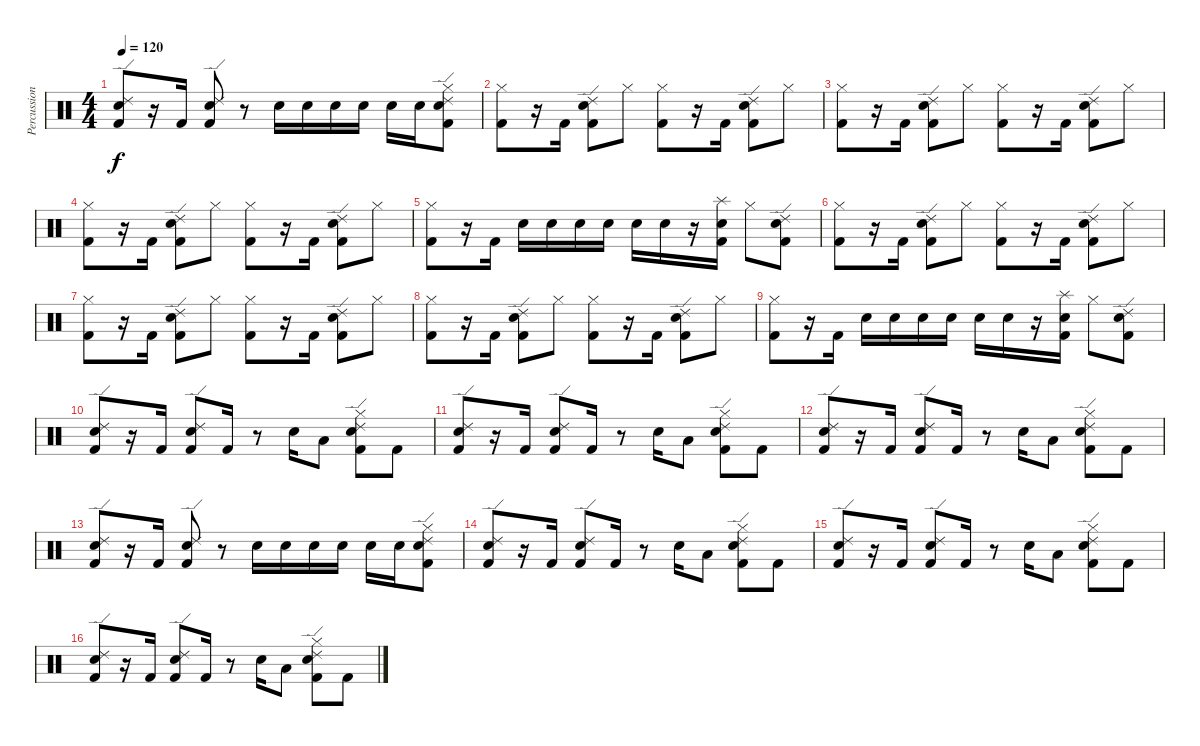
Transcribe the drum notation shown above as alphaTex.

\track ("Percussions" "Percussion") {instrument percussion}
\staff {score}
\articulation defaults
\ts (4 4)
\tempo 120
\clef neutral
\ks c
("Ride (edge) 2" "Electric Snare (hit)" "Kick (hit) 2").8{dy f} r.16 "Kick (hit) 2".16 ("Ride (edge) 2" "Electric Snare (hit)" "Kick (hit) 2").8 r.8 "Electric Snare (hit)".16 "Electric Snare (hit)".16 "Electric Snare (hit)".16 "Electric Snare (hit)".16 "Electric Snare (hit)".16 "Electric Snare (hit)".16 ("Ride (edge) 2" "Hi-Hat (closed)" "Electric Snare (hit)" "Kick (hit) 2").8 |
("Hi-Hat (closed)" "Kick (hit) 2").8 r.16 "Kick (hit) 2".16 ("Ride (edge) 2" "Electric Snare (hit)" "Kick (hit) 2").8 "Hi-Hat (closed)".8 ("Hi-Hat (closed)" "Kick (hit) 2").8 r.16 "Kick (hit) 2".16 ("Ride (edge) 2" "Electric Snare (hit)" "Kick (hit) 2").8 "Hi-Hat (closed)".8 |
("Hi-Hat (closed)" "Kick (hit) 2").8 r.16 "Kick (hit) 2".16 ("Ride (edge) 2" "Electric Snare (hit)" "Kick (hit) 2").8 "Hi-Hat (closed)".8 ("Hi-Hat (closed)" "Kick (hit) 2").8 r.16 "Kick (hit) 2".16 ("Ride (edge) 2" "Electric Snare (hit)" "Kick (hit) 2").8 "Hi-Hat (closed)".8 |
("Hi-Hat (closed)" "Kick (hit) 2").8 r.16 "Kick (hit) 2".16 ("Ride (edge) 2" "Electric Snare (hit)" "Kick (hit) 2").8 "Hi-Hat (closed)".8 ("Hi-Hat (closed)" "Kick (hit) 2").8 r.16 "Kick (hit) 2".16 ("Ride (edge) 2" "Electric Snare (hit)" "Kick (hit) 2").8 "Hi-Hat (closed)".8 |
("Hi-Hat (closed)" "Kick (hit) 2").8 r.16 "Kick (hit) 2".16 "Electric Snare (hit)".16 "Electric Snare (hit)".16 "Electric Snare (hit)".16 "Electric Snare (hit)".16 "Electric Snare (hit)".16 "Electric Snare (hit)".16 r.16 ("Splash (hit)" "Electric Snare (hit)" "Kick (hit) 2").16 "Hi-Hat (closed)".8 ("Ride (edge) 2" "Electric Snare (hit)" "Kick (hit) 2").8 |
("Hi-Hat (closed)" "Kick (hit) 2").8 r.16 "Kick (hit) 2".16 ("Ride (edge) 2" "Electric Snare (hit)" "Kick (hit) 2").8 "Hi-Hat (closed)".8 ("Hi-Hat (closed)" "Kick (hit) 2").8 r.16 "Kick (hit) 2".16 ("Ride (edge) 2" "Electric Snare (hit)" "Kick (hit) 2").8 "Hi-Hat (closed)".8 |
("Hi-Hat (closed)" "Kick (hit) 2").8 r.16 "Kick (hit) 2".16 ("Ride (edge) 2" "Electric Snare (hit)" "Kick (hit) 2").8 "Hi-Hat (closed)".8 ("Hi-Hat (closed)" "Kick (hit) 2").8 r.16 "Kick (hit) 2".16 ("Ride (edge) 2" "Electric Snare (hit)" "Kick (hit) 2").8 "Hi-Hat (closed)".8 |
("Hi-Hat (closed)" "Kick (hit) 2").8 r.16 "Kick (hit) 2".16 ("Ride (edge) 2" "Electric Snare (hit)" "Kick (hit) 2").8 "Hi-Hat (closed)".8 ("Hi-Hat (closed)" "Kick (hit) 2").8 r.16 "Kick (hit) 2".16 ("Ride (edge) 2" "Electric Snare (hit)" "Kick (hit) 2").8 "Hi-Hat (closed)".8 |
("Hi-Hat (closed)" "Kick (hit) 2").8 r.16 "Kick (hit) 2".16 "Electric Snare (hit)".16 "Electric Snare (hit)".16 "Electric Snare (hit)".16 "Electric Snare (hit)".16 "Electric Snare (hit)".16 "Electric Snare (hit)".16 r.16 ("Splash (hit)" "Electric Snare (hit)" "Kick (hit) 2").16 "Hi-Hat (closed)".8 ("Ride (edge) 2" "Electric Snare (hit)" "Kick (hit) 2").8 |
("Ride (edge) 2" "Electric Snare (hit)" "Kick (hit) 2").8 r.16 "Kick (hit) 2".16 ("Ride (edge) 2" "Electric Snare (hit)" "Kick (hit) 2").8 "Kick (hit) 2".16 r.8 "Electric Snare (hit)".16 "Low Floor Tom (hit)".8 ("Ride (edge) 2" "Hi-Hat (closed)" "Electric Snare (hit)" "Kick (hit) 2").8 "Kick (hit) 2".8 |
("Ride (edge) 2" "Electric Snare (hit)" "Kick (hit) 2").8 r.16 "Kick (hit) 2".16 ("Ride (edge) 2" "Electric Snare (hit)" "Kick (hit) 2").8 "Kick (hit) 2".16 r.8 "Electric Snare (hit)".16 "Low Floor Tom (hit)".8 ("Ride (edge) 2" "Hi-Hat (closed)" "Electric Snare (hit)" "Kick (hit) 2").8 "Kick (hit) 2".8 |
("Ride (edge) 2" "Electric Snare (hit)" "Kick (hit) 2").8 r.16 "Kick (hit) 2".16 ("Ride (edge) 2" "Electric Snare (hit)" "Kick (hit) 2").8 "Kick (hit) 2".16 r.8 "Electric Snare (hit)".16 "Low Floor Tom (hit)".8 ("Ride (edge) 2" "Hi-Hat (closed)" "Electric Snare (hit)" "Kick (hit) 2").8 "Kick (hit) 2".8 |
("Ride (edge) 2" "Electric Snare (hit)" "Kick (hit) 2").8 r.16 "Kick (hit) 2".16 ("Ride (edge) 2" "Electric Snare (hit)" "Kick (hit) 2").8 r.8 "Electric Snare (hit)".16 "Electric Snare (hit)".16 "Electric Snare (hit)".16 "Electric Snare (hit)".16 "Electric Snare (hit)".16 "Electric Snare (hit)".16 ("Ride (edge) 2" "Hi-Hat (closed)" "Electric Snare (hit)" "Kick (hit) 2").8 |
("Ride (edge) 2" "Electric Snare (hit)" "Kick (hit) 2").8 r.16 "Kick (hit) 2".16 ("Ride (edge) 2" "Electric Snare (hit)" "Kick (hit) 2").8 "Kick (hit) 2".16 r.8 "Electric Snare (hit)".16 "Low Floor Tom (hit)".8 ("Ride (edge) 2" "Hi-Hat (closed)" "Electric Snare (hit)" "Kick (hit) 2").8 "Kick (hit) 2".8 |
("Ride (edge) 2" "Electric Snare (hit)" "Kick (hit) 2").8 r.16 "Kick (hit) 2".16 ("Ride (edge) 2" "Electric Snare (hit)" "Kick (hit) 2").8 "Kick (hit) 2".16 r.8 "Electric Snare (hit)".16 "Low Floor Tom (hit)".8 ("Ride (edge) 2" "Hi-Hat (closed)" "Electric Snare (hit)" "Kick (hit) 2").8 "Kick (hit) 2".8 |
("Ride (edge) 2" "Electric Snare (hit)" "Kick (hit) 2").8 r.16 "Kick (hit) 2".16 ("Ride (edge) 2" "Electric Snare (hit)" "Kick (hit) 2").8 "Kick (hit) 2".16 r.8 "Electric Snare (hit)".16 "Low Floor Tom (hit)".8 ("Ride (edge) 2" "Hi-Hat (closed)" "Electric Snare (hit)" "Kick (hit) 2").8 "Kick (hit) 2".8
